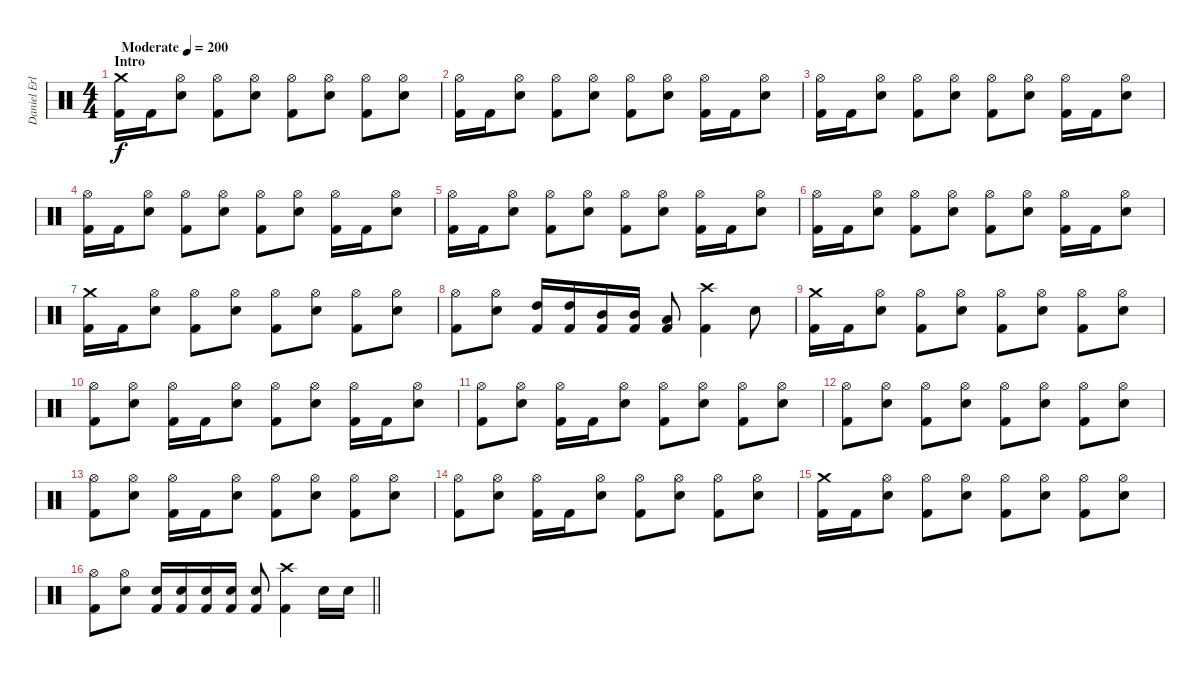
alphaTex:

\track ("Daniel Erlandsson" "Daniel Erl") {instrument percussion}
\staff {score}
\articulation defaults
\ts (4 4)
\section ("" "Intro")
\tempo (200 "Moderate")
\clef neutral
\ks c
("Kick (hit) 2" "Crash medium (hit)").16{dy f} "Kick (hit) 2".16 ("Snare (hit) 2" "Hi-Hat (open)").8 ("Kick (hit) 2" "Hi-Hat (open)").8 ("Snare (hit) 2" "Hi-Hat (open)").8 ("Kick (hit) 2" "Hi-Hat (open)").8 ("Snare (hit) 2" "Hi-Hat (open)").8 ("Kick (hit) 2" "Hi-Hat (open)").8 ("Snare (hit) 2" "Hi-Hat (open)").8 |
("Kick (hit) 2" "Hi-Hat (open)").16 "Kick (hit) 2".16 ("Snare (hit) 2" "Hi-Hat (open)").8 ("Kick (hit) 2" "Hi-Hat (open)").8 ("Snare (hit) 2" "Hi-Hat (open)").8 ("Kick (hit) 2" "Hi-Hat (open)").8 ("Snare (hit) 2" "Hi-Hat (open)").8 ("Kick (hit) 2" "Hi-Hat (open)").16 "Kick (hit) 2".16 ("Snare (hit) 2" "Hi-Hat (open)").8 |
("Kick (hit) 2" "Hi-Hat (open)").16 "Kick (hit) 2".16 ("Snare (hit) 2" "Hi-Hat (open)").8 ("Kick (hit) 2" "Hi-Hat (open)").8 ("Snare (hit) 2" "Hi-Hat (open)").8 ("Kick (hit) 2" "Hi-Hat (open)").8 ("Snare (hit) 2" "Hi-Hat (open)").8 ("Kick (hit) 2" "Hi-Hat (open)").16 "Kick (hit) 2".16 ("Snare (hit) 2" "Hi-Hat (open)").8 |
("Kick (hit) 2" "Hi-Hat (open)").16 "Kick (hit) 2".16 ("Snare (hit) 2" "Hi-Hat (open)").8 ("Kick (hit) 2" "Hi-Hat (open)").8 ("Snare (hit) 2" "Hi-Hat (open)").8 ("Kick (hit) 2" "Hi-Hat (open)").8 ("Snare (hit) 2" "Hi-Hat (open)").8 ("Kick (hit) 2" "Hi-Hat (open)").16 "Kick (hit) 2".16 ("Snare (hit) 2" "Hi-Hat (open)").8 |
("Kick (hit) 2" "Hi-Hat (open)").16 "Kick (hit) 2".16 ("Snare (hit) 2" "Hi-Hat (open)").8 ("Kick (hit) 2" "Hi-Hat (open)").8 ("Snare (hit) 2" "Hi-Hat (open)").8 ("Kick (hit) 2" "Hi-Hat (open)").8 ("Snare (hit) 2" "Hi-Hat (open)").8 ("Kick (hit) 2" "Hi-Hat (open)").16 "Kick (hit) 2".16 ("Snare (hit) 2" "Hi-Hat (open)").8 |
("Kick (hit) 2" "Hi-Hat (open)").16 "Kick (hit) 2".16 ("Snare (hit) 2" "Hi-Hat (open)").8 ("Kick (hit) 2" "Hi-Hat (open)").8 ("Snare (hit) 2" "Hi-Hat (open)").8 ("Kick (hit) 2" "Hi-Hat (open)").8 ("Snare (hit) 2" "Hi-Hat (open)").8 ("Kick (hit) 2" "Hi-Hat (open)").16 "Kick (hit) 2".16 ("Snare (hit) 2" "Hi-Hat (open)").8 |
("Kick (hit) 2" "Crash medium (hit)").16 "Kick (hit) 2".16 ("Snare (hit) 2" "Hi-Hat (open)").8 ("Kick (hit) 2" "Hi-Hat (open)").8 ("Snare (hit) 2" "Hi-Hat (open)").8 ("Kick (hit) 2" "Hi-Hat (open)").8 ("Snare (hit) 2" "Hi-Hat (open)").8 ("Kick (hit) 2" "Hi-Hat (open)").8 ("Snare (hit) 2" "Hi-Hat (open)").8 |
("Kick (hit) 2" "Hi-Hat (open)").8 ("Snare (hit) 2" "Hi-Hat (open)").8 ("Kick (hit) 2" "High Tom (hit)").16 ("Kick (hit) 2" "High Tom (hit)").16 ("Kick (hit) 2" "Mid Tom (hit)").16 ("Kick (hit) 2" "Mid Tom (hit)").16 ("Kick (hit) 2" "Low Tom (hit)").8 ("Kick (hit) 2" "Crash high (hit)").4 "Snare (hit) 2".8 |
("Kick (hit) 2" "Crash medium (hit)").16 "Kick (hit) 2".16 ("Snare (hit) 2" "Hi-Hat (open)").8 ("Kick (hit) 2" "Hi-Hat (open)").8 ("Snare (hit) 2" "Hi-Hat (open)").8 ("Kick (hit) 2" "Hi-Hat (open)").8 ("Snare (hit) 2" "Hi-Hat (open)").8 ("Kick (hit) 2" "Hi-Hat (open)").8 ("Snare (hit) 2" "Hi-Hat (open)").8 |
("Kick (hit) 2" "Hi-Hat (open)").8 ("Snare (hit) 2" "Hi-Hat (open)").8 ("Kick (hit) 2" "Hi-Hat (open)").16 "Kick (hit) 2".16 ("Snare (hit) 2" "Hi-Hat (open)").8 ("Kick (hit) 2" "Hi-Hat (open)").8 ("Snare (hit) 2" "Hi-Hat (open)").8 ("Kick (hit) 2" "Hi-Hat (open)").16 "Kick (hit) 2".16 ("Snare (hit) 2" "Hi-Hat (open)").8 |
("Kick (hit) 2" "Hi-Hat (open)").8 ("Snare (hit) 2" "Hi-Hat (open)").8 ("Kick (hit) 2" "Hi-Hat (open)").16 "Kick (hit) 2".16 ("Snare (hit) 2" "Hi-Hat (open)").8 ("Kick (hit) 2" "Hi-Hat (open)").8 ("Snare (hit) 2" "Hi-Hat (open)").8 ("Kick (hit) 2" "Hi-Hat (open)").8 ("Snare (hit) 2" "Hi-Hat (open)").8 |
("Kick (hit) 2" "Hi-Hat (open)").8 ("Snare (hit) 2" "Hi-Hat (open)").8 ("Kick (hit) 2" "Hi-Hat (open)").8 ("Snare (hit) 2" "Hi-Hat (open)").8 ("Kick (hit) 2" "Hi-Hat (open)").8 ("Snare (hit) 2" "Hi-Hat (open)").8 ("Kick (hit) 2" "Hi-Hat (open)").8 ("Snare (hit) 2" "Hi-Hat (open)").8 |
("Kick (hit) 2" "Hi-Hat (open)").8 ("Snare (hit) 2" "Hi-Hat (open)").8 ("Kick (hit) 2" "Hi-Hat (open)").16 "Kick (hit) 2".16 ("Snare (hit) 2" "Hi-Hat (open)").8 ("Kick (hit) 2" "Hi-Hat (open)").8 ("Snare (hit) 2" "Hi-Hat (open)").8 ("Kick (hit) 2" "Hi-Hat (open)").8 ("Snare (hit) 2" "Hi-Hat (open)").8 |
("Kick (hit) 2" "Hi-Hat (open)").8 ("Snare (hit) 2" "Hi-Hat (open)").8 ("Kick (hit) 2" "Hi-Hat (open)").16 "Kick (hit) 2".16 ("Snare (hit) 2" "Hi-Hat (open)").8 ("Kick (hit) 2" "Hi-Hat (open)").8 ("Snare (hit) 2" "Hi-Hat (open)").8 ("Kick (hit) 2" "Hi-Hat (open)").8 ("Snare (hit) 2" "Hi-Hat (open)").8 |
("Kick (hit) 2" "Crash medium (hit)").16 "Kick (hit) 2".16 ("Snare (hit) 2" "Hi-Hat (open)").8 ("Kick (hit) 2" "Hi-Hat (open)").8 ("Snare (hit) 2" "Hi-Hat (open)").8 ("Kick (hit) 2" "Hi-Hat (open)").8 ("Snare (hit) 2" "Hi-Hat (open)").8 ("Kick (hit) 2" "Hi-Hat (open)").8 ("Snare (hit) 2" "Hi-Hat (open)").8 |
\barLineRight lightlight
("Kick (hit) 2" "Hi-Hat (open)").8 ("Snare (hit) 2" "Hi-Hat (open)").8 ("Kick (hit) 2" "Snare (hit) 2").16 ("Kick (hit) 2" "Snare (hit) 2").16 ("Kick (hit) 2" "Snare (hit) 2").16 ("Kick (hit) 2" "Snare (hit) 2").16 ("Kick (hit) 2" "Snare (hit) 2").8 ("Kick (hit) 2" "Crash high (hit)").4 "Snare (hit) 2".16 "Snare (hit) 2".16
